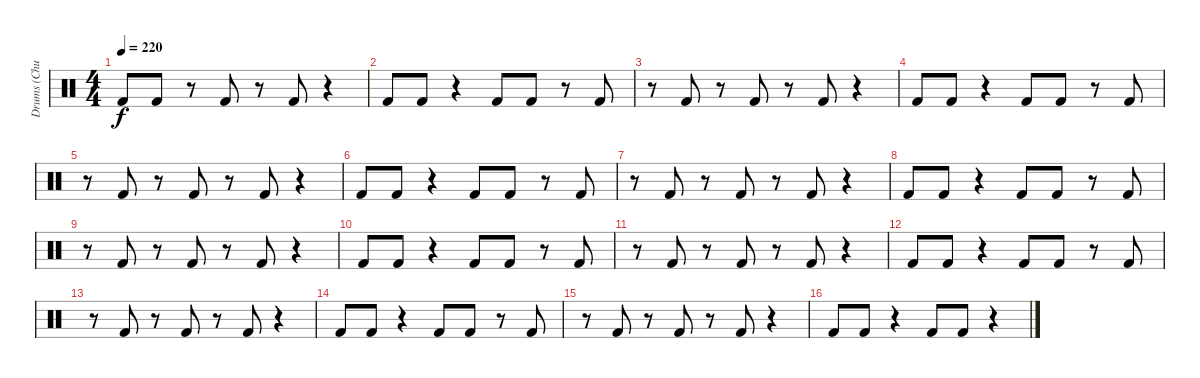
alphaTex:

\track ("Drums (Chuck Behler)" "Drums (Chu") {instrument percussion}
\staff {score}
\articulation defaults
\ts (4 4)
\tempo 220
\clef neutral
\ks c "Kick (hit) 2".8{dy f} "Kick (hit) 2".8
r.8 "Kick (hit) 2".8 r.8 "Kick (hit) 2".8 r.4 |
"Kick (hit) 2".8 "Kick (hit) 2".8 r.4 "Kick (hit) 2".8 "Kick (hit) 2".8 r.8 "Kick (hit) 2".8 |
r.8 "Kick (hit) 2".8 r.8 "Kick (hit) 2".8 r.8 "Kick (hit) 2".8 r.4 |
"Kick (hit) 2".8 "Kick (hit) 2".8 r.4 "Kick (hit) 2".8 "Kick (hit) 2".8 r.8 "Kick (hit) 2".8 |
r.8 "Kick (hit) 2".8 r.8 "Kick (hit) 2".8 r.8 "Kick (hit) 2".8 r.4 |
"Kick (hit) 2".8 "Kick (hit) 2".8 r.4 "Kick (hit) 2".8 "Kick (hit) 2".8 r.8 "Kick (hit) 2".8 |
r.8 "Kick (hit) 2".8 r.8 "Kick (hit) 2".8 r.8 "Kick (hit) 2".8 r.4 |
"Kick (hit) 2".8 "Kick (hit) 2".8 r.4 "Kick (hit) 2".8 "Kick (hit) 2".8 r.8 "Kick (hit) 2".8 |
r.8 "Kick (hit) 2".8 r.8 "Kick (hit) 2".8 r.8 "Kick (hit) 2".8 r.4 |
"Kick (hit) 2".8 "Kick (hit) 2".8 r.4 "Kick (hit) 2".8 "Kick (hit) 2".8 r.8 "Kick (hit) 2".8 |
r.8 "Kick (hit) 2".8 r.8 "Kick (hit) 2".8 r.8 "Kick (hit) 2".8 r.4 |
"Kick (hit) 2".8 "Kick (hit) 2".8 r.4 "Kick (hit) 2".8 "Kick (hit) 2".8 r.8 "Kick (hit) 2".8 |
r.8 "Kick (hit) 2".8 r.8 "Kick (hit) 2".8 r.8 "Kick (hit) 2".8 r.4 |
"Kick (hit) 2".8 "Kick (hit) 2".8 r.4 "Kick (hit) 2".8 "Kick (hit) 2".8 r.8 "Kick (hit) 2".8 |
r.8 "Kick (hit) 2".8 r.8 "Kick (hit) 2".8 r.8 "Kick (hit) 2".8 r.4 |
"Kick (hit) 2".8 "Kick (hit) 2".8 r.4 "Kick (hit) 2".8 "Kick (hit) 2".8 r.4
